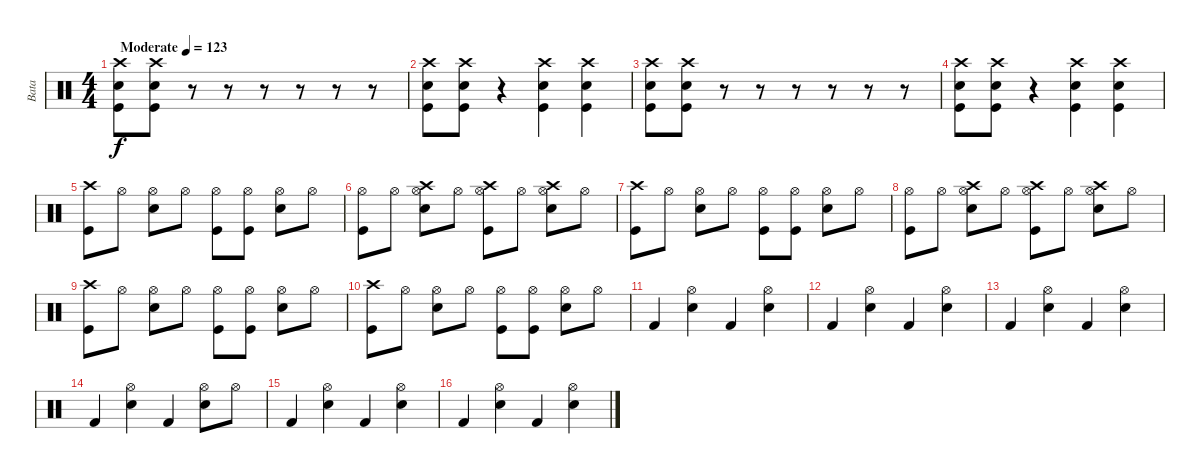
\track ("Bata" "Bata") {instrument percussion}
\staff {score}
\articulation defaults
\ts (4 4)
\tempo (123 "Moderate")
\clef neutral
\ks c
("Crash high (hit)" "Snare (hit) 2" "Kick (hit)").8{dy f} ("Crash high (hit)" "Snare (hit) 2" "Kick (hit)").8 r.8 r.8 r.8 r.8 r.8 r.8 |
("Crash high (hit)" "Snare (hit) 2" "Kick (hit)").8 ("Crash high (hit)" "Snare (hit) 2" "Kick (hit)").8 r.4 ("Kick (hit)" "Crash high (hit)" "Snare (hit) 2").4 ("Kick (hit)" "Crash high (hit)" "Snare (hit) 2").4 |
("Crash high (hit)" "Snare (hit) 2" "Kick (hit)").8 ("Crash high (hit)" "Snare (hit) 2" "Kick (hit)").8 r.8 r.8 r.8 r.8 r.8 r.8 |
("Crash high (hit)" "Snare (hit) 2" "Kick (hit)").8 ("Crash high (hit)" "Snare (hit) 2" "Kick (hit)").8 r.4 ("Kick (hit)" "Crash high (hit)" "Snare (hit) 2").4 ("Kick (hit)" "Crash high (hit)" "Snare (hit) 2").4 |
("Crash high (hit)" "Kick (hit)").8 "Hi-Hat (open)".8 ("Hi-Hat (open)" "Snare (hit) 2").8 "Hi-Hat (open)".8 ("Hi-Hat (open)" "Kick (hit)").8 ("Hi-Hat (open)" "Kick (hit)").8 ("Hi-Hat (open)" "Snare (hit) 2").8 "Hi-Hat (open)".8 |
("Hi-Hat (open)" "Kick (hit)").8 "Hi-Hat (open)".8 ("Hi-Hat (open)" "Snare (hit) 2" "Crash high (hit)").8 "Hi-Hat (open)".8 ("Hi-Hat (open)" "Kick (hit)" "Crash high (hit)").8 "Hi-Hat (open)".8 ("Hi-Hat (open)" "Snare (hit) 2" "Crash high (hit)").8 "Hi-Hat (open)".8 |
("Crash high (hit)" "Kick (hit)").8 "Hi-Hat (open)".8 ("Hi-Hat (open)" "Snare (hit) 2").8 "Hi-Hat (open)".8 ("Hi-Hat (open)" "Kick (hit)").8 ("Hi-Hat (open)" "Kick (hit)").8 ("Hi-Hat (open)" "Snare (hit) 2").8 "Hi-Hat (open)".8 |
("Hi-Hat (open)" "Kick (hit)").8 "Hi-Hat (open)".8 ("Hi-Hat (open)" "Snare (hit) 2" "Crash high (hit)").8 "Hi-Hat (open)".8 ("Hi-Hat (open)" "Kick (hit)" "Crash high (hit)").8 "Hi-Hat (open)".8 ("Hi-Hat (open)" "Snare (hit) 2" "Crash high (hit)").8 "Hi-Hat (open)".8 |
("Crash high (hit)" "Kick (hit)").8 "Hi-Hat (open)".8 ("Hi-Hat (open)" "Snare (hit) 2").8 "Hi-Hat (open)".8 ("Hi-Hat (open)" "Kick (hit)").8 ("Hi-Hat (open)" "Kick (hit)").8 ("Hi-Hat (open)" "Snare (hit) 2").8 "Hi-Hat (open)".8 |
("Crash high (hit)" "Kick (hit)").8 "Hi-Hat (open)".8 ("Hi-Hat (open)" "Snare (hit) 2").8 "Hi-Hat (open)".8 ("Hi-Hat (open)" "Kick (hit)").8 ("Hi-Hat (open)" "Kick (hit)").8 ("Hi-Hat (open)" "Snare (hit) 2").8 "Hi-Hat (open)".8 |
"Kick (hit) 2".4 ("Hi-Hat (open)" "Snare (hit) 2").4 "Kick (hit) 2".4 ("Hi-Hat (open)" "Snare (hit) 2").4 |
"Kick (hit) 2".4 ("Hi-Hat (open)" "Snare (hit) 2").4 "Kick (hit) 2".4 ("Hi-Hat (open)" "Snare (hit) 2").4 |
"Kick (hit) 2".4 ("Hi-Hat (open)" "Snare (hit) 2").4 "Kick (hit) 2".4 ("Hi-Hat (open)" "Snare (hit) 2").4 |
"Kick (hit) 2".4 ("Hi-Hat (open)" "Snare (hit) 2").4 "Kick (hit) 2".4 ("Hi-Hat (open)" "Snare (hit) 2").8 "Hi-Hat (open)".8 |
"Kick (hit) 2".4 ("Hi-Hat (open)" "Snare (hit) 2").4 "Kick (hit) 2".4 ("Hi-Hat (open)" "Snare (hit) 2").4 |
"Kick (hit) 2".4 ("Hi-Hat (open)" "Snare (hit) 2").4 "Kick (hit) 2".4 ("Hi-Hat (open)" "Snare (hit) 2").4
